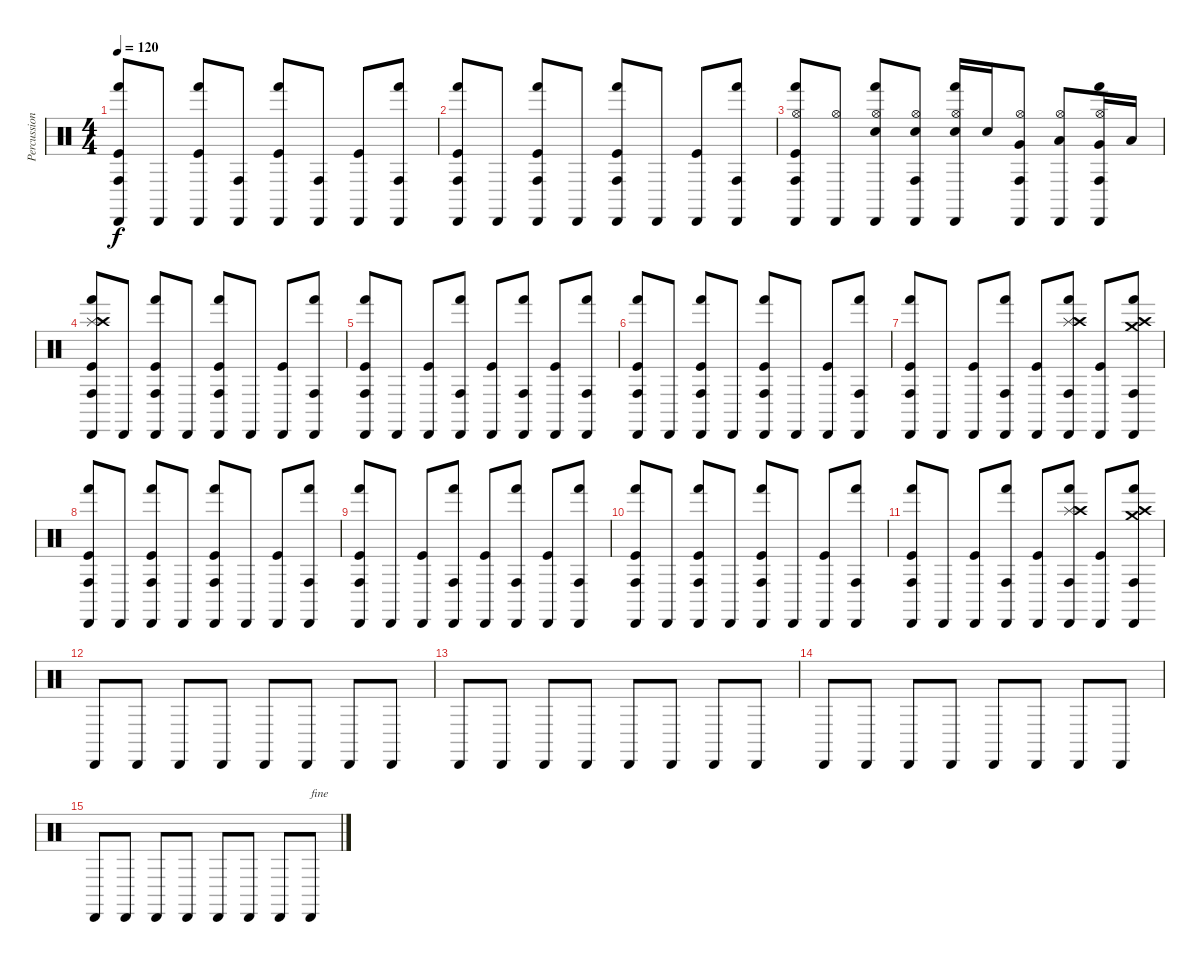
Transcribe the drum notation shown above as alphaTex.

\track ("Percussion" "Percussion") {instrument percussion}
\staff {score}
\articulation defaults
\ts (4 4)
\tempo 120
\clef neutral
\ks c
("Cabasa (hit)" "Kick (hit)" "Hand (hit)" "Conga high (hit)").8{dy f} "Cabasa (hit)".8 ("Cabasa (hit)" "Kick (hit)" "Hand (hit)").8 ("Cabasa (hit)" "Conga high (hit)").8 ("Cabasa (hit)" "Kick (hit)" "Hand (hit)").8 ("Cabasa (hit)" "Conga high (hit)").8 ("Cabasa (hit)" "Kick (hit)").8 ("Cabasa (hit)" "Hand (hit)" "Conga high (hit)").8 |
("Cabasa (hit)" "Kick (hit)" "Hand (hit)" "Conga high (hit)").8 "Cabasa (hit)".8 ("Cabasa (hit)" "Kick (hit)" "Hand (hit)" "Conga high (hit)").8 "Cabasa (hit)".8 ("Cabasa (hit)" "Kick (hit)" "Hand (hit)" "Conga high (hit)").8 "Cabasa (hit)".8 ("Cabasa (hit)" "Kick (hit)").8 ("Cabasa (hit)" "Hand (hit)" "Conga high (hit)").8 |
("Cabasa (hit)" "Kick (hit)" "Hand (hit)" "Conga high (hit)" "Hi-Hat (open)").8 ("Cabasa (hit)" "Hi-Hat (open)").8 ("Cabasa (hit)" "Electric Snare (hit)" "Hand (hit)" "Hi-Hat (open)").8 ("Cabasa (hit)" "Electric Snare (hit)" "Conga high (hit)" "Hi-Hat (open)").8 ("Cabasa (hit)" "Snare (hit) 2" "Hand (hit)" "Hi-Hat (open)").16 "Snare (hit) 2".16 ("Cabasa (hit)" "Very Low Tom (hit)" "Conga high (hit)" "Hi-Hat (open)").8 ("Cabasa (hit)" "Low Floor Tom (hit)" "Hi-Hat (open)").8 ("Cabasa (hit)" "Very Low Tom (hit)" "Hand (hit)" "Conga high (hit)" "Hi-Hat (open)").16 "Low Tom (hit)".16 |
("Cabasa (hit)" "Kick (hit)" "Hand (hit)" "Conga high (hit)" "Splash (hit)" "Crash high (hit)").8 "Cabasa (hit)".8 ("Cabasa (hit)" "Kick (hit)" "Hand (hit)" "Conga high (hit)").8 "Cabasa (hit)".8 ("Cabasa (hit)" "Kick (hit)" "Hand (hit)" "Conga high (hit)").8 "Cabasa (hit)".8 ("Cabasa (hit)" "Kick (hit)").8 ("Cabasa (hit)" "Hand (hit)" "Conga high (hit)").8 |
("Cabasa (hit)" "Kick (hit)" "Hand (hit)" "Conga high (hit)").8 "Cabasa (hit)".8 ("Cabasa (hit)" "Kick (hit)").8 ("Cabasa (hit)" "Hand (hit)" "Conga high (hit)").8 ("Cabasa (hit)" "Kick (hit)").8 ("Cabasa (hit)" "Hand (hit)" "Conga high (hit)").8 ("Cabasa (hit)" "Kick (hit)").8 ("Cabasa (hit)" "Hand (hit)" "Conga high (hit)").8 |
("Cabasa (hit)" "Kick (hit)" "Hand (hit)" "Conga high (hit)").8 "Cabasa (hit)".8 ("Cabasa (hit)" "Kick (hit)" "Hand (hit)" "Conga high (hit)").8 "Cabasa (hit)".8 ("Cabasa (hit)" "Kick (hit)" "Hand (hit)" "Conga high (hit)").8 "Cabasa (hit)".8 ("Cabasa (hit)" "Kick (hit)").8 ("Cabasa (hit)" "Hand (hit)" "Conga high (hit)").8 |
("Cabasa (hit)" "Kick (hit)" "Hand (hit)" "Conga high (hit)").8 "Cabasa (hit)".8 ("Cabasa (hit)" "Kick (hit)").8 ("Cabasa (hit)" "Hand (hit)" "Conga high (hit)").8 ("Cabasa (hit)" "Kick (hit)").8 ("Cabasa (hit)" "Hand (hit)" "Conga high (hit)" "Splash (hit)" "Crash high (hit)").8 ("Cabasa (hit)" "Kick (hit)").8 ("Cabasa (hit)" "Hand (hit)" "Conga high (hit)" "Crash medium (hit)" "Crash high (hit)").8 |
("Cabasa (hit)" "Kick (hit)" "Hand (hit)" "Conga high (hit)").8 "Cabasa (hit)".8 ("Cabasa (hit)" "Kick (hit)" "Hand (hit)" "Conga high (hit)").8 "Cabasa (hit)".8 ("Cabasa (hit)" "Kick (hit)" "Hand (hit)" "Conga high (hit)").8 "Cabasa (hit)".8 ("Cabasa (hit)" "Kick (hit)").8 ("Cabasa (hit)" "Hand (hit)" "Conga high (hit)").8 |
("Cabasa (hit)" "Kick (hit)" "Hand (hit)" "Conga high (hit)").8 "Cabasa (hit)".8 ("Cabasa (hit)" "Kick (hit)").8 ("Cabasa (hit)" "Hand (hit)" "Conga high (hit)").8 ("Cabasa (hit)" "Kick (hit)").8 ("Cabasa (hit)" "Hand (hit)" "Conga high (hit)").8 ("Cabasa (hit)" "Kick (hit)").8 ("Cabasa (hit)" "Hand (hit)" "Conga high (hit)").8 |
("Cabasa (hit)" "Kick (hit)" "Hand (hit)" "Conga high (hit)").8 "Cabasa (hit)".8 ("Cabasa (hit)" "Kick (hit)" "Hand (hit)" "Conga high (hit)").8 "Cabasa (hit)".8 ("Cabasa (hit)" "Kick (hit)" "Hand (hit)" "Conga high (hit)").8 "Cabasa (hit)".8 ("Cabasa (hit)" "Kick (hit)").8 ("Cabasa (hit)" "Hand (hit)" "Conga high (hit)").8 |
("Cabasa (hit)" "Kick (hit)" "Hand (hit)" "Conga high (hit)").8 "Cabasa (hit)".8 ("Cabasa (hit)" "Kick (hit)").8 ("Cabasa (hit)" "Hand (hit)" "Conga high (hit)").8 ("Cabasa (hit)" "Kick (hit)").8 ("Cabasa (hit)" "Hand (hit)" "Conga high (hit)" "Splash (hit)" "Crash high (hit)").8 ("Cabasa (hit)" "Kick (hit)").8 ("Cabasa (hit)" "Hand (hit)" "Conga high (hit)" "Crash medium (hit)" "Crash high (hit)").8 |
"Cabasa (hit)".8 "Cabasa (hit)".8 "Cabasa (hit)".8 "Cabasa (hit)".8 "Cabasa (hit)".8 "Cabasa (hit)".8 "Cabasa (hit)".8 "Cabasa (hit)".8 |
"Cabasa (hit)".8 "Cabasa (hit)".8 "Cabasa (hit)".8 "Cabasa (hit)".8 "Cabasa (hit)".8 "Cabasa (hit)".8 "Cabasa (hit)".8 "Cabasa (hit)".8 |
"Cabasa (hit)".8 "Cabasa (hit)".8 "Cabasa (hit)".8 "Cabasa (hit)".8 "Cabasa (hit)".8 "Cabasa (hit)".8 "Cabasa (hit)".8 "Cabasa (hit)".8 |
"Cabasa (hit)".8 "Cabasa (hit)".8 "Cabasa (hit)".8 "Cabasa (hit)".8 "Cabasa (hit)".8 "Cabasa (hit)".8 "Cabasa (hit)".8 "Cabasa (hit)".8{txt "fine"}
